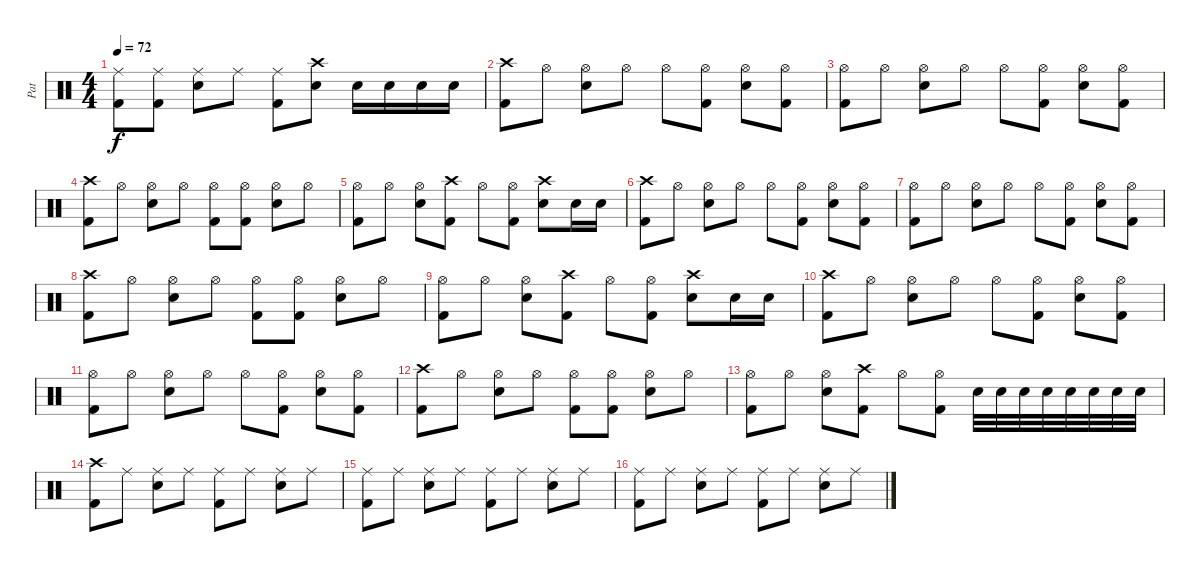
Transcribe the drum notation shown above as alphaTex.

\track ("Pat" "Pat") {instrument percussion}
\staff {score}
\articulation defaults
\ts (4 4)
\tempo 72
\clef neutral
\ks c
("Ride (middle)" "Kick (hit) 2").8{dy f} ("Ride (middle)" "Kick (hit) 2").8 ("Ride (middle)" "Electric Snare (hit)").8 "Ride (middle)".8 ("Ride (middle)" "Kick (hit) 2").8 ("Crash high (hit)" "Electric Snare (hit)").8 "Electric Snare (hit)".16 "Electric Snare (hit)".16 "Electric Snare (hit)".16 "Electric Snare (hit)".16 |
("Crash high (hit)" "Kick (hit) 2").8 "Hi-Hat (open)".8 ("Hi-Hat (open)" "Electric Snare (hit)").8 "Hi-Hat (open)".8 "Hi-Hat (open)".8 ("Hi-Hat (open)" "Kick (hit) 2").8 ("Hi-Hat (open)" "Electric Snare (hit)").8 ("Hi-Hat (open)" "Kick (hit) 2").8 |
("Hi-Hat (open)" "Kick (hit) 2").8 "Hi-Hat (open)".8 ("Hi-Hat (open)" "Electric Snare (hit)").8 "Hi-Hat (open)".8 "Hi-Hat (open)".8 ("Hi-Hat (open)" "Kick (hit) 2").8 ("Hi-Hat (open)" "Electric Snare (hit)").8 ("Hi-Hat (open)" "Kick (hit) 2").8 |
("Crash high (hit)" "Kick (hit) 2").8 "Hi-Hat (open)".8 ("Hi-Hat (open)" "Electric Snare (hit)").8 "Hi-Hat (open)".8 ("Hi-Hat (open)" "Kick (hit) 2").8 ("Hi-Hat (open)" "Kick (hit) 2").8 ("Hi-Hat (open)" "Electric Snare (hit)").8 "Hi-Hat (open)".8 |
("Hi-Hat (open)" "Kick (hit) 2").8 "Hi-Hat (open)".8 ("Hi-Hat (open)" "Electric Snare (hit)").8 ("Crash high (hit)" "Kick (hit) 2").8 "Hi-Hat (open)".8 ("Hi-Hat (open)" "Kick (hit) 2").8 ("Crash high (hit)" "Electric Snare (hit)").8 "Electric Snare (hit)".16 "Electric Snare (hit)".16 |
("Crash high (hit)" "Kick (hit) 2").8 "Hi-Hat (open)".8 ("Hi-Hat (open)" "Electric Snare (hit)").8 "Hi-Hat (open)".8 "Hi-Hat (open)".8 ("Hi-Hat (open)" "Kick (hit) 2").8 ("Hi-Hat (open)" "Electric Snare (hit)").8 ("Hi-Hat (open)" "Kick (hit) 2").8 |
("Hi-Hat (open)" "Kick (hit) 2").8 "Hi-Hat (open)".8 ("Hi-Hat (open)" "Electric Snare (hit)").8 "Hi-Hat (open)".8 "Hi-Hat (open)".8 ("Hi-Hat (open)" "Kick (hit) 2").8 ("Hi-Hat (open)" "Electric Snare (hit)").8 ("Hi-Hat (open)" "Kick (hit) 2").8 |
("Crash high (hit)" "Kick (hit) 2").8 "Hi-Hat (open)".8 ("Hi-Hat (open)" "Electric Snare (hit)").8 "Hi-Hat (open)".8 ("Hi-Hat (open)" "Kick (hit) 2").8 ("Hi-Hat (open)" "Kick (hit) 2").8 ("Hi-Hat (open)" "Electric Snare (hit)").8 "Hi-Hat (open)".8 |
("Hi-Hat (open)" "Kick (hit) 2").8 "Hi-Hat (open)".8 ("Hi-Hat (open)" "Electric Snare (hit)").8 ("Crash high (hit)" "Kick (hit) 2").8 "Hi-Hat (open)".8 ("Hi-Hat (open)" "Kick (hit) 2").8 ("Crash high (hit)" "Electric Snare (hit)").8 "Electric Snare (hit)".16 "Electric Snare (hit)".16 |
("Crash high (hit)" "Kick (hit) 2").8 "Hi-Hat (open)".8 ("Hi-Hat (open)" "Electric Snare (hit)").8 "Hi-Hat (open)".8 "Hi-Hat (open)".8 ("Hi-Hat (open)" "Kick (hit) 2").8 ("Hi-Hat (open)" "Electric Snare (hit)").8 ("Hi-Hat (open)" "Kick (hit) 2").8 |
("Hi-Hat (open)" "Kick (hit) 2").8 "Hi-Hat (open)".8 ("Hi-Hat (open)" "Electric Snare (hit)").8 "Hi-Hat (open)".8 "Hi-Hat (open)".8 ("Hi-Hat (open)" "Kick (hit) 2").8 ("Hi-Hat (open)" "Electric Snare (hit)").8 ("Hi-Hat (open)" "Kick (hit) 2").8 |
("Crash high (hit)" "Kick (hit) 2").8 "Hi-Hat (open)".8 ("Hi-Hat (open)" "Electric Snare (hit)").8 "Hi-Hat (open)".8 ("Hi-Hat (open)" "Kick (hit) 2").8 ("Hi-Hat (open)" "Kick (hit) 2").8 ("Hi-Hat (open)" "Electric Snare (hit)").8 "Hi-Hat (open)".8 |
("Hi-Hat (open)" "Kick (hit) 2").8 "Hi-Hat (open)".8 ("Hi-Hat (open)" "Electric Snare (hit)").8 ("Crash high (hit)" "Kick (hit) 2").8 "Hi-Hat (open)".8 ("Hi-Hat (open)" "Kick (hit) 2").8 "Electric Snare (hit)".32 "Electric Snare (hit)".32 "Electric Snare (hit)".32 "Electric Snare (hit)".32 "Electric Snare (hit)".32 "Electric Snare (hit)".32 "Electric Snare (hit)".32 "Electric Snare (hit)".32 |
("Crash high (hit)" "Kick (hit) 2").8 "Ride (middle)".8 ("Ride (middle)" "Electric Snare (hit)").8 "Ride (middle)".8 ("Ride (middle)" "Kick (hit) 2").8 "Ride (middle)".8 ("Ride (middle)" "Electric Snare (hit)").8 "Ride (middle)".8 |
("Ride (middle)" "Kick (hit) 2").8 "Ride (middle)".8 ("Ride (middle)" "Electric Snare (hit)").8 "Ride (middle)".8 ("Ride (middle)" "Kick (hit) 2").8 "Ride (middle)".8 ("Ride (middle)" "Electric Snare (hit)").8 "Ride (middle)".8 |
("Ride (middle)" "Kick (hit) 2").8 "Ride (middle)".8 ("Ride (middle)" "Electric Snare (hit)").8 "Ride (middle)".8 ("Ride (middle)" "Kick (hit) 2").8 "Ride (middle)".8 ("Ride (middle)" "Electric Snare (hit)").8 "Ride (middle)".8
